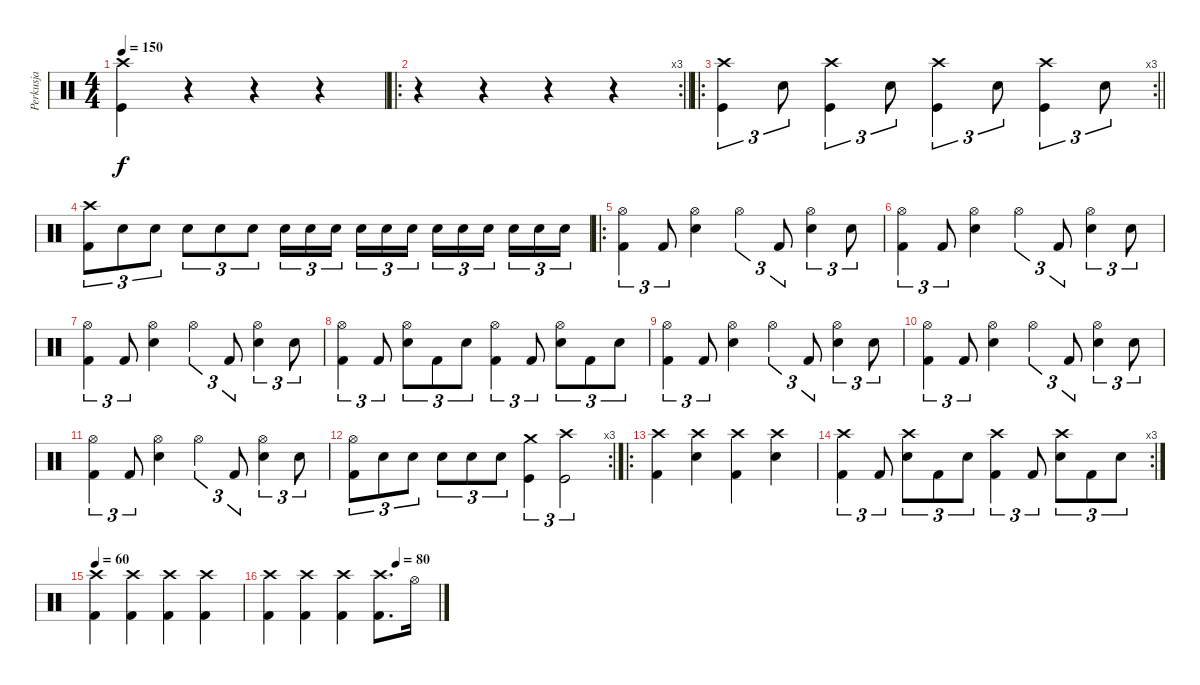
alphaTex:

\track ("Perkusja" "Perkusja") {instrument percussion}
\staff {score}
\articulation defaults
\ts (4 4)
\tempo 150
\clef neutral
\ks c
("Kick (hit)" "Crash high (hit)").4{dy f} r.4 r.4 r.4 |
\ro
\rc 3
\barLineRight lightlight
r.4 r.4 r.4 r.4 |
\ro
\rc 3
\barLineRight lightlight
("Kick (hit)" "Crash high (hit)").4{tu (3 2)} "Snare (hit) 2".8{tu (3 2)} ("Kick (hit)" "Crash high (hit)").4{tu (3 2)} "Snare (hit) 2".8{tu (3 2)} ("Kick (hit)" "Crash high (hit)").4{tu (3 2)} "Snare (hit) 2".8{tu (3 2)} ("Kick (hit)" "Crash high (hit)").4{tu (3 2)} "Snare (hit) 2".8{tu (3 2)} |
("Kick (hit) 2" "Crash high (hit)").8{tu (3 2)} "Snare (hit) 2".8{tu (3 2)} "Snare (hit) 2".8{tu (3 2)} "Snare (hit) 2".8{tu (3 2)} "Snare (hit) 2".8{tu (3 2)} "Snare (hit) 2".8{tu (3 2)} "Snare (hit) 2".16{tu (3 2)} "Snare (hit) 2".16{tu (3 2)} "Snare (hit) 2".16{tu (3 2) beam splitsecondary} "Snare (hit) 2".16{tu (3 2)} "Snare (hit) 2".16{tu (3 2)} "Snare (hit) 2".16{tu (3 2)} "Snare (hit) 2".16{tu (3 2)} "Snare (hit) 2".16{tu (3 2)} "Snare (hit) 2".16{tu (3 2) beam splitsecondary} "Snare (hit) 2".16{tu (3 2)} "Snare (hit) 2".16{tu (3 2)} "Snare (hit) 2".16{tu (3 2)} |
\ro
("Kick (hit) 2" "Hi-Hat (open)").4{tu (3 2)} "Kick (hit) 2".8{tu (3 2)} ("Snare (hit) 2" "Hi-Hat (open)").4 "Hi-Hat (open)".4{tu (3 2)} "Kick (hit) 2".8{tu (3 2)} ("Snare (hit) 2" "Hi-Hat (open)").4{tu (3 2)} "Snare (hit) 2".8{tu (3 2)} |
("Kick (hit) 2" "Hi-Hat (open)").4{tu (3 2)} "Kick (hit) 2".8{tu (3 2)} ("Snare (hit) 2" "Hi-Hat (open)").4 "Hi-Hat (open)".4{tu (3 2)} "Kick (hit) 2".8{tu (3 2)} ("Snare (hit) 2" "Hi-Hat (open)").4{tu (3 2)} "Snare (hit) 2".8{tu (3 2)} |
("Kick (hit) 2" "Hi-Hat (open)").4{tu (3 2)} "Kick (hit) 2".8{tu (3 2)} ("Snare (hit) 2" "Hi-Hat (open)").4 "Hi-Hat (open)".4{tu (3 2)} "Kick (hit) 2".8{tu (3 2)} ("Snare (hit) 2" "Hi-Hat (open)").4{tu (3 2)} "Snare (hit) 2".8{tu (3 2)} |
("Kick (hit) 2" "Hi-Hat (open)").4{tu (3 2)} "Kick (hit) 2".8{tu (3 2)} ("Snare (hit) 2" "Hi-Hat (open)").8{tu (3 2)} "Kick (hit) 2".8{tu (3 2)} "Snare (hit) 2".8{tu (3 2)} ("Kick (hit) 2" "Hi-Hat (open)").4{tu (3 2)} "Kick (hit) 2".8{tu (3 2)} ("Snare (hit) 2" "Hi-Hat (open)").8{tu (3 2)} "Kick (hit) 2".8{tu (3 2)} "Snare (hit) 2".8{tu (3 2)} |
("Kick (hit) 2" "Hi-Hat (open)").4{tu (3 2)} "Kick (hit) 2".8{tu (3 2)} ("Snare (hit) 2" "Hi-Hat (open)").4 "Hi-Hat (open)".4{tu (3 2)} "Kick (hit) 2".8{tu (3 2)} ("Snare (hit) 2" "Hi-Hat (open)").4{tu (3 2)} "Snare (hit) 2".8{tu (3 2)} |
("Kick (hit) 2" "Hi-Hat (open)").4{tu (3 2)} "Kick (hit) 2".8{tu (3 2)} ("Snare (hit) 2" "Hi-Hat (open)").4 "Hi-Hat (open)".4{tu (3 2)} "Kick (hit) 2".8{tu (3 2)} ("Snare (hit) 2" "Hi-Hat (open)").4{tu (3 2)} "Snare (hit) 2".8{tu (3 2)} |
("Kick (hit) 2" "Hi-Hat (open)").4{tu (3 2)} "Kick (hit) 2".8{tu (3 2)} ("Snare (hit) 2" "Hi-Hat (open)").4 "Hi-Hat (open)".4{tu (3 2)} "Kick (hit) 2".8{tu (3 2)} ("Snare (hit) 2" "Hi-Hat (open)").4{tu (3 2)} "Snare (hit) 2".8{tu (3 2)} |
\rc 3
("Kick (hit) 2" "Hi-Hat (open)").8{tu (3 2)} "Snare (hit) 2".8{tu (3 2)} "Snare (hit) 2".8{tu (3 2)} "Snare (hit) 2".8{tu (3 2)} "Snare (hit) 2".8{tu (3 2)} "Snare (hit) 2".8{tu (3 2)} ("Kick (hit)" "Crash medium (hit)").4{tu (3 2)} ("Kick (hit)" "Crash high (hit)").2{tu (3 2)} |
\ro
("Kick (hit) 2" "Crash high (hit)").4 ("Snare (hit) 2" "Crash high (hit)").4 ("Kick (hit) 2" "Crash high (hit)").4 ("Snare (hit) 2" "Crash high (hit)").4 |
\rc 3
("Kick (hit) 2" "Crash high (hit)").4{tu (3 2)} "Kick (hit) 2".8{tu (3 2)} ("Snare (hit) 2" "Crash high (hit)").8{tu (3 2)} "Kick (hit) 2".8{tu (3 2)} "Snare (hit) 2".8{tu (3 2)} ("Kick (hit) 2" "Crash high (hit)").4{tu (3 2)} "Kick (hit) 2".8{tu (3 2)} ("Snare (hit) 2" "Crash high (hit)").8{tu (3 2)} "Kick (hit) 2".8{tu (3 2)} "Snare (hit) 2".8{tu (3 2)} |
\tempo 60
("Kick (hit) 2" "Crash high (hit)").4 ("Kick (hit) 2" "Crash high (hit)").4 ("Kick (hit) 2" "Crash high (hit)").4 ("Kick (hit) 2" "Crash high (hit)").4 |
\tempo (80 0.75)
("Kick (hit) 2" "Crash high (hit)").4 ("Kick (hit) 2" "Crash high (hit)").4 ("Kick (hit) 2" "Crash high (hit)").4 ("Crash high (hit)" "Kick (hit) 2").8{d} "Hi-Hat (open)".16
